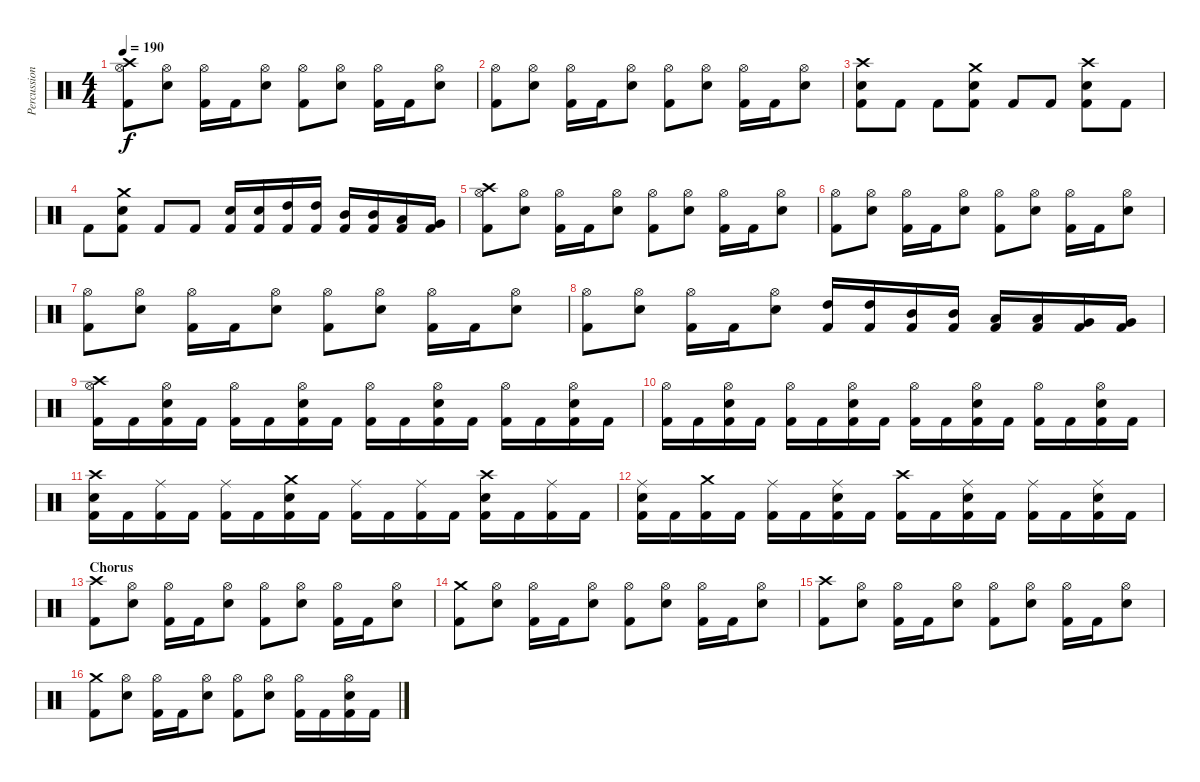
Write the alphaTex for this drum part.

\track ("Percussion" "Percussion") {instrument percussion}
\staff {score}
\articulation defaults
\ts (4 4)
\tempo 190
\clef neutral
\ks c
("Crash high (hit)" "Hi-Hat (open)" "Kick (hit) 2").8{dy f} ("Hi-Hat (open)" "Snare (hit) 2").8 ("Hi-Hat (open)" "Kick (hit) 2").16 "Kick (hit) 2".16 ("Hi-Hat (open)" "Snare (hit) 2").8 ("Hi-Hat (open)" "Kick (hit) 2").8 ("Hi-Hat (open)" "Snare (hit) 2").8 ("Hi-Hat (open)" "Kick (hit) 2").16 "Kick (hit) 2".16 ("Hi-Hat (open)" "Snare (hit) 2").8 |
("Hi-Hat (open)" "Kick (hit) 2").8 ("Hi-Hat (open)" "Snare (hit) 2").8 ("Hi-Hat (open)" "Kick (hit) 2").16 "Kick (hit) 2".16 ("Hi-Hat (open)" "Snare (hit) 2").8 ("Hi-Hat (open)" "Kick (hit) 2").8 ("Hi-Hat (open)" "Snare (hit) 2").8 ("Hi-Hat (open)" "Kick (hit) 2").16 "Kick (hit) 2".16 ("Hi-Hat (open)" "Snare (hit) 2").8 |
("Crash high (hit)" "Snare (hit) 2" "Kick (hit) 2").8 "Kick (hit) 2".8 "Kick (hit) 2".8 ("Crash medium (hit)" "Snare (hit) 2" "Kick (hit) 2").8 "Kick (hit) 2".8 "Kick (hit) 2".8 ("Crash high (hit)" "Snare (hit) 2" "Kick (hit) 2").8 "Kick (hit) 2".8 |
"Kick (hit) 2".8 ("Crash medium (hit)" "Snare (hit) 2" "Kick (hit) 2").8 "Kick (hit) 2".8 "Kick (hit) 2".8 ("Snare (hit) 2" "Kick (hit) 2").16 ("Snare (hit) 2" "Kick (hit) 2").16 ("High Tom (hit)" "Kick (hit) 2").16 ("High Tom (hit)" "Kick (hit) 2").16 ("Mid Tom (hit)" "Kick (hit) 2").16 ("Mid Tom (hit)" "Kick (hit) 2").16 ("Low Tom (hit)" "Kick (hit) 2").16 ("Very Low Tom (hit)" "Kick (hit) 2").16 |
("Crash high (hit)" "Hi-Hat (open)" "Kick (hit) 2").8 ("Hi-Hat (open)" "Snare (hit) 2").8 ("Hi-Hat (open)" "Kick (hit) 2").16 "Kick (hit) 2".16 ("Hi-Hat (open)" "Snare (hit) 2").8 ("Hi-Hat (open)" "Kick (hit) 2").8 ("Hi-Hat (open)" "Snare (hit) 2").8 ("Hi-Hat (open)" "Kick (hit) 2").16 "Kick (hit) 2".16 ("Hi-Hat (open)" "Snare (hit) 2").8 |
("Hi-Hat (open)" "Kick (hit) 2").8 ("Hi-Hat (open)" "Snare (hit) 2").8 ("Hi-Hat (open)" "Kick (hit) 2").16 "Kick (hit) 2".16 ("Hi-Hat (open)" "Snare (hit) 2").8 ("Hi-Hat (open)" "Kick (hit) 2").8 ("Hi-Hat (open)" "Snare (hit) 2").8 ("Hi-Hat (open)" "Kick (hit) 2").16 "Kick (hit) 2".16 ("Hi-Hat (open)" "Snare (hit) 2").8 |
("Hi-Hat (open)" "Kick (hit) 2").8 ("Hi-Hat (open)" "Snare (hit) 2").8 ("Hi-Hat (open)" "Kick (hit) 2").16 "Kick (hit) 2".16 ("Hi-Hat (open)" "Snare (hit) 2").8 ("Hi-Hat (open)" "Kick (hit) 2").8 ("Hi-Hat (open)" "Snare (hit) 2").8 ("Hi-Hat (open)" "Kick (hit) 2").16 "Kick (hit) 2".16 ("Hi-Hat (open)" "Snare (hit) 2").8 |
("Hi-Hat (open)" "Kick (hit) 2").8 ("Hi-Hat (open)" "Snare (hit) 2").8 ("Hi-Hat (open)" "Kick (hit) 2").16 "Kick (hit) 2".16 ("Hi-Hat (open)" "Snare (hit) 2").8 ("High Tom (hit)" "Kick (hit) 2").16 ("High Tom (hit)" "Kick (hit) 2").16 ("Mid Tom (hit)" "Kick (hit) 2").16 ("Mid Tom (hit)" "Kick (hit) 2").16 ("Low Tom (hit)" "Kick (hit) 2").16 ("Low Tom (hit)" "Kick (hit) 2").16 ("Very Low Tom (hit)" "Kick (hit) 2").16 ("Very Low Tom (hit)" "Kick (hit) 2").16 |
("Crash high (hit)" "Hi-Hat (open)" "Kick (hit) 2").16 "Kick (hit) 2".16 ("Hi-Hat (open)" "Snare (hit) 2" "Kick (hit) 2").16 "Kick (hit) 2".16 ("Hi-Hat (open)" "Kick (hit) 2").16 "Kick (hit) 2".16 ("Hi-Hat (open)" "Snare (hit) 2" "Kick (hit) 2").16 "Kick (hit) 2".16 ("Hi-Hat (open)" "Kick (hit) 2").16 "Kick (hit) 2".16 ("Hi-Hat (open)" "Snare (hit) 2" "Kick (hit) 2").16 "Kick (hit) 2".16 ("Hi-Hat (open)" "Kick (hit) 2").16 "Kick (hit) 2".16 ("Hi-Hat (open)" "Snare (hit) 2" "Kick (hit) 2").16 "Kick (hit) 2".16 |
("Hi-Hat (open)" "Kick (hit) 2").16 "Kick (hit) 2".16 ("Hi-Hat (open)" "Snare (hit) 2" "Kick (hit) 2").16 "Kick (hit) 2".16 ("Hi-Hat (open)" "Kick (hit) 2").16 "Kick (hit) 2".16 ("Hi-Hat (open)" "Snare (hit) 2" "Kick (hit) 2").16 "Kick (hit) 2".16 ("Hi-Hat (open)" "Kick (hit) 2").16 "Kick (hit) 2".16 ("Hi-Hat (open)" "Snare (hit) 2" "Kick (hit) 2").16 "Kick (hit) 2".16 ("Hi-Hat (open)" "Kick (hit) 2").16 "Kick (hit) 2".16 ("Hi-Hat (open)" "Snare (hit) 2" "Kick (hit) 2").16 "Kick (hit) 2".16 |
("Crash high (hit)" "Snare (hit) 2" "Kick (hit) 2").16 "Kick (hit) 2".16 ("Ride (middle)" "Kick (hit) 2").16 "Kick (hit) 2".16 ("Ride (middle)" "Kick (hit) 2").16 "Kick (hit) 2".16 ("Crash medium (hit)" "Snare (hit) 2" "Kick (hit) 2").16 "Kick (hit) 2".16 ("Ride (middle)" "Kick (hit) 2").16 "Kick (hit) 2".16 ("Ride (middle)" "Kick (hit) 2").16 "Kick (hit) 2".16 ("Crash high (hit)" "Snare (hit) 2" "Kick (hit) 2").16 "Kick (hit) 2".16 ("Ride (middle)" "Kick (hit) 2").16 "Kick (hit) 2".16 |
("Ride (middle)" "Snare (hit) 2" "Kick (hit) 2").16 "Kick (hit) 2".16 ("Crash medium (hit)" "Kick (hit) 2").16 "Kick (hit) 2".16 ("Ride (middle)" "Kick (hit) 2").16 "Kick (hit) 2".16 ("Ride (middle)" "Snare (hit) 2" "Kick (hit) 2").16 "Kick (hit) 2".16 ("Crash high (hit)" "Kick (hit) 2").16 "Kick (hit) 2".16 ("Ride (middle)" "Snare (hit) 2" "Kick (hit) 2").16 "Kick (hit) 2".16 ("Ride (middle)" "Kick (hit) 2").16 "Kick (hit) 2".16 ("Ride (middle)" "Snare (hit) 2" "Kick (hit) 2").16 "Kick (hit) 2".16 |
\section ("" "Chorus")
("Crash high (hit)" "Kick (hit) 2").8 ("Hi-Hat (open)" "Snare (hit) 2").8 ("Hi-Hat (open)" "Kick (hit) 2").16 "Kick (hit) 2".16 ("Hi-Hat (open)" "Snare (hit) 2").8 ("Hi-Hat (open)" "Kick (hit) 2").8 ("Hi-Hat (open)" "Snare (hit) 2").8 ("Hi-Hat (open)" "Kick (hit) 2").16 "Kick (hit) 2".16 ("Hi-Hat (open)" "Snare (hit) 2").8 |
("Crash medium (hit)" "Kick (hit) 2").8 ("Hi-Hat (open)" "Snare (hit) 2").8 ("Hi-Hat (open)" "Kick (hit) 2").16 "Kick (hit) 2".16 ("Hi-Hat (open)" "Snare (hit) 2").8 ("Hi-Hat (open)" "Kick (hit) 2").8 ("Hi-Hat (open)" "Snare (hit) 2").8 ("Hi-Hat (open)" "Kick (hit) 2").16 "Kick (hit) 2".16 ("Hi-Hat (open)" "Snare (hit) 2").8 |
("Crash high (hit)" "Kick (hit) 2").8 ("Hi-Hat (open)" "Snare (hit) 2").8 ("Hi-Hat (open)" "Kick (hit) 2").16 "Kick (hit) 2".16 ("Hi-Hat (open)" "Snare (hit) 2").8 ("Hi-Hat (open)" "Kick (hit) 2").8 ("Hi-Hat (open)" "Snare (hit) 2").8 ("Hi-Hat (open)" "Kick (hit) 2").16 "Kick (hit) 2".16 ("Hi-Hat (open)" "Snare (hit) 2").8 |
("Crash medium (hit)" "Kick (hit) 2").8 ("Hi-Hat (open)" "Snare (hit) 2").8 ("Hi-Hat (open)" "Kick (hit) 2").16 "Kick (hit) 2".16 ("Hi-Hat (open)" "Snare (hit) 2").8 ("Hi-Hat (open)" "Kick (hit) 2").8 ("Hi-Hat (open)" "Snare (hit) 2").8 ("Hi-Hat (open)" "Kick (hit) 2").16 "Kick (hit) 2".16 ("Hi-Hat (open)" "Snare (hit) 2" "Kick (hit) 2").16 "Kick (hit) 2".16
